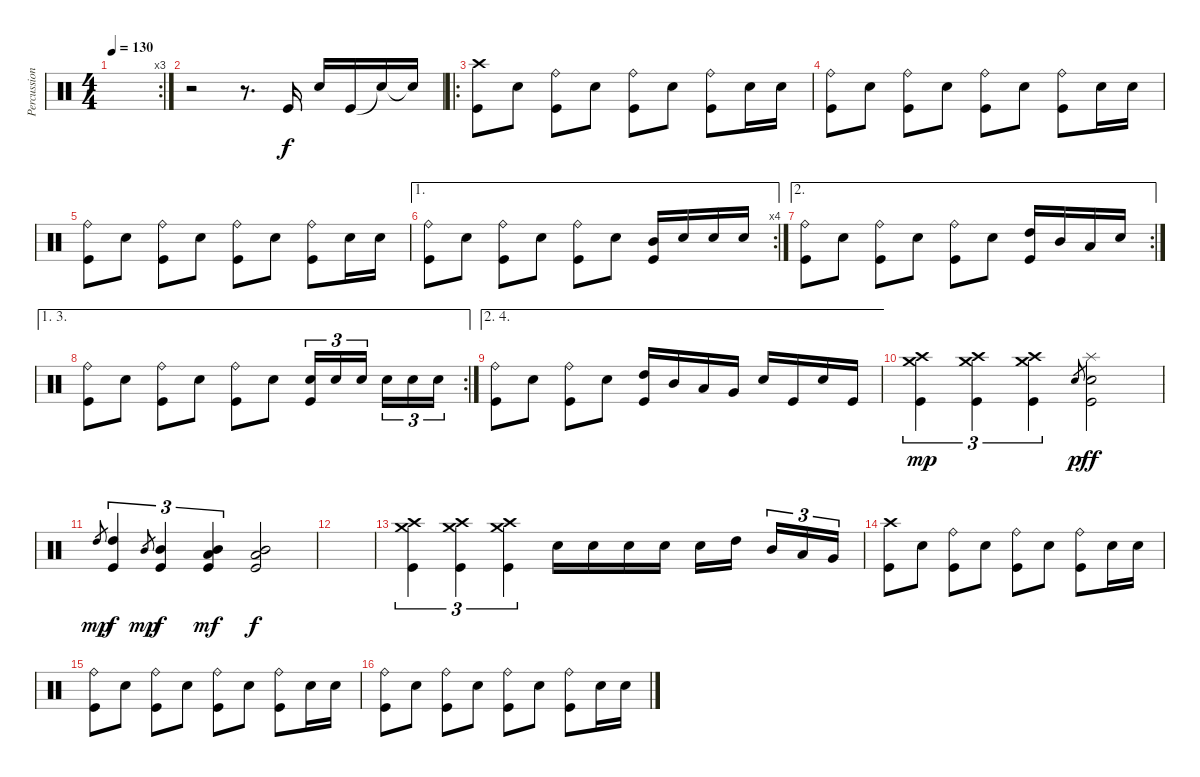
\track ("Percussion" "Percussion") {instrument percussion}
\staff {score}
\articulation defaults
\rc 3
\ts (4 4)
\tempo 130
\clef neutral
\ks c
|
r.2 r.8{d} "Kick (hit)".16 "Electric Snare (hit)".16 "Kick (hit)".16 "Snare (hit)"{t}.16 "Snare (hit)"{t}.16 |
\ro
("Crash high (hit)" "Kick (hit)").8 "Electric Snare (hit)".8 ("Ride (bell)" "Kick (hit)").8 "Electric Snare (hit)".8 ("Ride (bell)" "Kick (hit)").8 "Electric Snare (hit)".8 ("Ride (bell)" "Kick (hit)").8 "Electric Snare (hit)".16 "Electric Snare (hit)".16 |
("Ride (bell)" "Kick (hit)").8 "Electric Snare (hit)".8 ("Ride (bell)" "Kick (hit)").8 "Electric Snare (hit)".8 ("Ride (bell)" "Kick (hit)").8 "Electric Snare (hit)".8 ("Ride (bell)" "Kick (hit)").8 "Electric Snare (hit)".16 "Electric Snare (hit)".16 |
("Ride (bell)" "Kick (hit)").8 "Electric Snare (hit)".8 ("Ride (bell)" "Kick (hit)").8 "Electric Snare (hit)".8 ("Ride (bell)" "Kick (hit)").8 "Electric Snare (hit)".8 ("Ride (bell)" "Kick (hit)").8 "Electric Snare (hit)".16 "Electric Snare (hit)".16 |
\ae 1
\rc 4
("Ride (bell)" "Kick (hit)").8 "Electric Snare (hit)".8 ("Ride (bell)" "Kick (hit)").8 "Electric Snare (hit)".8 ("Ride (bell)" "Kick (hit)").8 "Electric Snare (hit)".8 ("Mid Tom (hit)" "Kick (hit)").16 "Electric Snare (hit)".16 "Electric Snare (hit)".16 "Electric Snare (hit)".16 |
\ae 2
\rc 2
("Ride (bell)" "Kick (hit)").8 "Electric Snare (hit)".8 ("Ride (bell)" "Kick (hit)").8 "Electric Snare (hit)".8 ("Ride (bell)" "Kick (hit)").8 "Electric Snare (hit)".8 ("High Tom (hit)" "Kick (hit)").16 "Mid Tom (hit)".16 "Low Tom (hit)".16 "Electric Snare (hit)".16 |
\ae (1 3)
\rc 2
("Ride (bell)" "Kick (hit)").8 "Electric Snare (hit)".8 ("Ride (bell)" "Kick (hit)").8 "Electric Snare (hit)".8 ("Ride (bell)" "Kick (hit)").8 "Electric Snare (hit)".8 ("Electric Snare (hit)" "Kick (hit)").16{tu (3 2)} "Electric Snare (hit)".16{tu (3 2)} "Electric Snare (hit)".16{tu (3 2)} "Electric Snare (hit)".16{tu (3 2)} "Electric Snare (hit)".16{tu (3 2)} "Electric Snare (hit)".16{tu (3 2)} |
\ae (2 4)
("Ride (bell)" "Kick (hit)").8 "Electric Snare (hit)".8 ("Ride (bell)" "Kick (hit)").8 "Electric Snare (hit)".8 ("High Tom (hit)" "Kick (hit)").16 "Mid Tom (hit)".16 "Low Tom (hit)".16 "Very Low Tom (hit)".16 "Electric Snare (hit)".16 "Kick (hit)".16 "Electric Snare (hit)".16 "Kick (hit)".16 |
("Crash high (hit)" "Crash medium (hit)" "Kick (hit)").4{tu (3 2) dy mp} ("Crash medium (hit)" "Crash high (hit)" "Kick (hit)").4{tu (3 2)} ("Crash high (hit)" "Crash medium (hit)" "Kick (hit)").4{tu (3 2)} "Electric Snare (hit)".8{gr dy p} ("Splash (hit)" "Electric Snare (hit)" "Kick (hit)").2{dy ff} |
"High Tom (hit)".8{gr dy mp} ("High Tom (hit)" "Kick (hit)").4{tu (3 2) dy f} "Mid Tom (hit)".8{gr dy mp} ("Mid Tom (hit)" "Kick (hit)").4{tu (3 2) dy f} ("Mid Tom (hit)" "Low Tom (hit)" "Kick (hit)").4{tu (3 2) dy mf} ("Mid Tom (hit)" "Low Tom (hit)" "Kick (hit)").2{dy f} |
|
("Crash high (hit)" "Crash medium (hit)" "Kick (hit)").4{tu (3 2)} ("Crash high (hit)" "Crash medium (hit)" "Kick (hit)").4{tu (3 2)} ("Crash high (hit)" "Crash medium (hit)" "Kick (hit)").4{tu (3 2)} "Electric Snare (hit)".16 "Electric Snare (hit)".16 "Electric Snare (hit)".16 "Electric Snare (hit)".16 "Electric Snare (hit)".16 "High Tom (hit)".16 "Mid Tom (hit)".16{tu (3 2)} "Low Tom (hit)".16{tu (3 2)} "Very Low Tom (hit)".16{tu (3 2)} |
("Crash high (hit)" "Kick (hit)").8 "Electric Snare (hit)".8 ("Ride (bell)" "Kick (hit)").8 "Electric Snare (hit)".8 ("Ride (bell)" "Kick (hit)").8 "Electric Snare (hit)".8 ("Ride (bell)" "Kick (hit)").8 "Electric Snare (hit)".16 "Electric Snare (hit)".16 |
("Ride (bell)" "Kick (hit)").8 "Electric Snare (hit)".8 ("Ride (bell)" "Kick (hit)").8 "Electric Snare (hit)".8 ("Ride (bell)" "Kick (hit)").8 "Electric Snare (hit)".8 ("Ride (bell)" "Kick (hit)").8 "Electric Snare (hit)".16 "Electric Snare (hit)".16 |
("Ride (bell)" "Kick (hit)").8 "Electric Snare (hit)".8 ("Ride (bell)" "Kick (hit)").8 "Electric Snare (hit)".8 ("Ride (bell)" "Kick (hit)").8 "Electric Snare (hit)".8 ("Ride (bell)" "Kick (hit)").8 "Electric Snare (hit)".16 "Electric Snare (hit)".16
